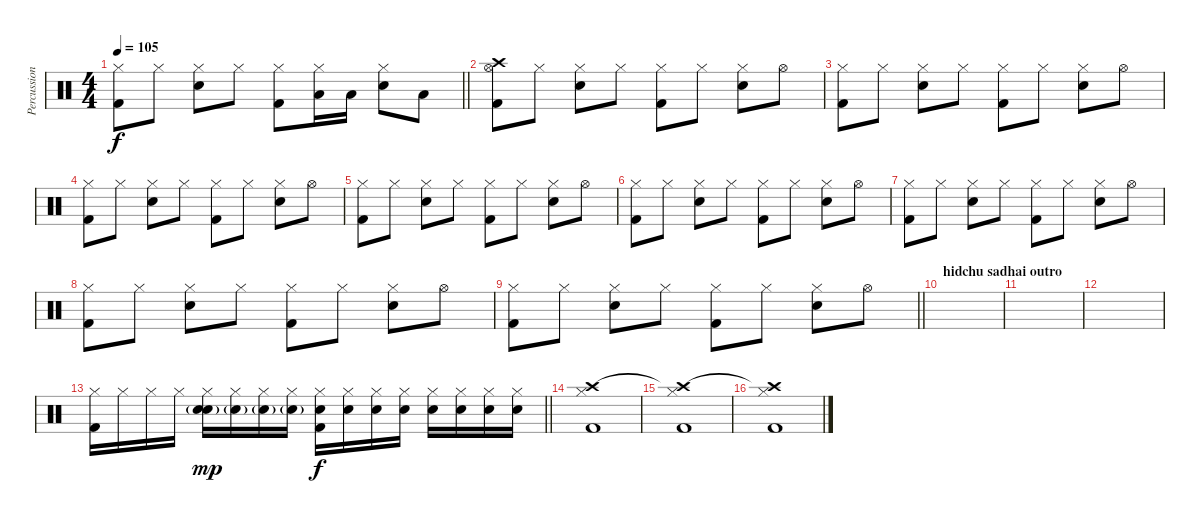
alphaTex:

\track ("Percussion" "Percussion") {instrument percussion}
\staff {score}
\articulation defaults
\ts (4 4)
\tempo 105
\clef neutral
\barLineRight lightlight
\ks c
("Kick (hit) 2" "Hi-Hat (closed)").8{dy f} "Hi-Hat (closed)".8 ("Snare (hit) 2" "Hi-Hat (closed)").8 "Hi-Hat (closed)".8 ("Kick (hit) 2" "Hi-Hat (closed)").8 ("Low Tom (hit)" "Hi-Hat (closed)").16 "Low Tom (hit)".16 ("Snare (hit) 2" "Hi-Hat (closed)").8 "Low Tom (hit)".8 |
("Hi-Hat (open)" "Kick (hit) 2" "Crash high (hit)").8 "Hi-Hat (closed)".8 ("Snare (hit) 2" "Hi-Hat (closed)").8 "Hi-Hat (closed)".8 ("Kick (hit) 2" "Hi-Hat (closed)").8 "Hi-Hat (closed)".8 ("Snare (hit) 2" "Hi-Hat (closed)").8 "Hi-Hat (open)".8 |
("Kick (hit) 2" "Hi-Hat (closed)").8 "Hi-Hat (closed)".8 ("Snare (hit) 2" "Hi-Hat (closed)").8 "Hi-Hat (closed)".8 ("Kick (hit) 2" "Hi-Hat (closed)").8 "Hi-Hat (closed)".8 ("Snare (hit) 2" "Hi-Hat (closed)").8 "Hi-Hat (open)".8 |
("Kick (hit) 2" "Hi-Hat (closed)").8 "Hi-Hat (closed)".8 ("Snare (hit) 2" "Hi-Hat (closed)").8 "Hi-Hat (closed)".8 ("Kick (hit) 2" "Hi-Hat (closed)").8 "Hi-Hat (closed)".8 ("Snare (hit) 2" "Hi-Hat (closed)").8 "Hi-Hat (open)".8 |
("Kick (hit) 2" "Hi-Hat (closed)").8 "Hi-Hat (closed)".8 ("Snare (hit) 2" "Hi-Hat (closed)").8 "Hi-Hat (closed)".8 ("Kick (hit) 2" "Hi-Hat (closed)").8 "Hi-Hat (closed)".8 ("Snare (hit) 2" "Hi-Hat (closed)").8 "Hi-Hat (open)".8 |
("Kick (hit) 2" "Hi-Hat (closed)").8 "Hi-Hat (closed)".8 ("Snare (hit) 2" "Hi-Hat (closed)").8 "Hi-Hat (closed)".8 ("Kick (hit) 2" "Hi-Hat (closed)").8 "Hi-Hat (closed)".8 ("Snare (hit) 2" "Hi-Hat (closed)").8 "Hi-Hat (open)".8 |
("Kick (hit) 2" "Hi-Hat (closed)").8 "Hi-Hat (closed)".8 ("Snare (hit) 2" "Hi-Hat (closed)").8 "Hi-Hat (closed)".8 ("Kick (hit) 2" "Hi-Hat (closed)").8 "Hi-Hat (closed)".8 ("Snare (hit) 2" "Hi-Hat (closed)").8 "Hi-Hat (open)".8 |
("Kick (hit) 2" "Hi-Hat (closed)").8 "Hi-Hat (closed)".8 ("Snare (hit) 2" "Hi-Hat (closed)").8 "Hi-Hat (closed)".8 ("Kick (hit) 2" "Hi-Hat (closed)").8 "Hi-Hat (closed)".8 ("Snare (hit) 2" "Hi-Hat (closed)").8 "Hi-Hat (open)".8 |
\barLineRight lightlight
("Kick (hit) 2" "Hi-Hat (closed)").8 "Hi-Hat (closed)".8 ("Snare (hit) 2" "Hi-Hat (closed)").8 "Hi-Hat (closed)".8 ("Kick (hit) 2" "Hi-Hat (closed)").8 "Hi-Hat (closed)".8 ("Snare (hit) 2" "Hi-Hat (closed)").8 "Hi-Hat (open)".8 |
\section ("" "hidchu sadhai outro")
|
|
|
\barLineRight lightlight
("Hi-Hat (closed)" "Kick (hit) 2").16 "Hi-Hat (closed)".16 "Hi-Hat (closed)".16 "Hi-Hat (closed)".16 ("Snare (hit) 2"{g} "Hi-Hat (closed)" "Snare (hit) 2").16{dy mp} ("Snare (hit) 2"{g} "Hi-Hat (closed)").16 ("Snare (hit) 2"{g} "Hi-Hat (closed)").16 ("Snare (hit) 2"{g} "Hi-Hat (closed)").16 ("Snare (hit) 2" "Hi-Hat (closed)" "Kick (hit) 2").16{dy f} ("Snare (hit) 2" "Hi-Hat (closed)").16 ("Snare (hit) 2" "Hi-Hat (closed)").16 ("Snare (hit) 2" "Hi-Hat (closed)").16 ("Snare (hit) 2" "Hi-Hat (closed)").16 ("Snare (hit) 2" "Hi-Hat (closed)").16 ("Snare (hit) 2" "Hi-Hat (closed)").16 ("Snare (hit) 2" "Hi-Hat (closed)").16 |
("Crash high (hit)" "Hi-Hat (closed)" "Kick (hit) 2").1 |
("Crash high (hit)"{t} "Hi-Hat (closed)" "Kick (hit) 2").1 |
("Crash high (hit)"{t} "Hi-Hat (closed)" "Kick (hit) 2").1
